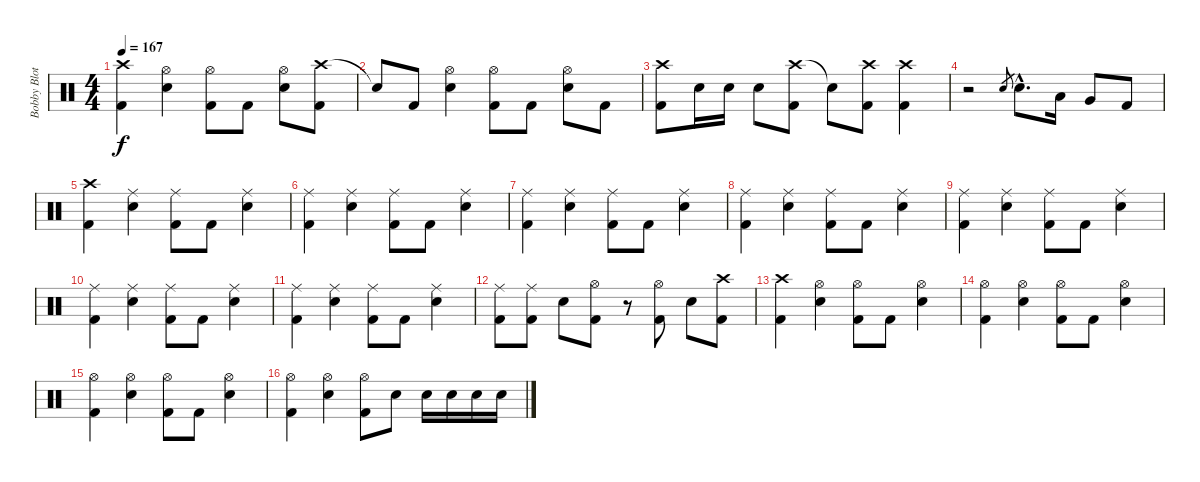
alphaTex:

\track ("Bobby Blotzer" "Bobby Blot") {instrument percussion}
\staff {score}
\articulation defaults
\ts (4 4)
\tempo 167
\clef neutral
\ks c
("Crash high (hit)" "Kick (hit) 2").4{dy f} ("Hi-Hat (open)" "Electric Snare (hit)").4 ("Hi-Hat (open)" "Kick (hit) 2").8 "Kick (hit) 2".8 ("Hi-Hat (open)" "Electric Snare (hit)").8 ("Crash high (hit)" "Kick (hit) 2").8 |
"Snare (hit)"{t}.8 "Kick (hit) 2".8 ("Hi-Hat (open)" "Electric Snare (hit)").4 ("Hi-Hat (open)" "Kick (hit) 2").8 "Kick (hit) 2".8 ("Hi-Hat (open)" "Electric Snare (hit)").8 "Kick (hit) 2".8 |
("Crash high (hit)" "Kick (hit) 2").8 "Electric Snare (hit)".16 "Electric Snare (hit)".16 "Electric Snare (hit)".8 ("Crash high (hit)" "Kick (hit) 2").8 "Snare (hit)"{t}.8 ("Crash high (hit)" "Kick (hit) 2").8 ("Crash high (hit)" "Kick (hit) 2").4 |
r.2 "Electric Snare (hit)".8{gr} "Electric Snare (hit)"{hac}.8{d} "Low Tom (hit)".16 "Very Low Tom (hit)".8 "Kick (hit) 2".8 |
("Crash high (hit)" "Kick (hit) 2").4 ("Ride (middle)" "Electric Snare (hit)").4 ("Ride (middle)" "Kick (hit) 2").8 "Kick (hit) 2".8 ("Ride (middle)" "Electric Snare (hit)").4 |
("Ride (middle)" "Kick (hit) 2").4 ("Ride (middle)" "Electric Snare (hit)").4 ("Ride (middle)" "Kick (hit) 2").8 "Kick (hit) 2".8 ("Ride (middle)" "Electric Snare (hit)").4 |
("Ride (middle)" "Kick (hit) 2").4 ("Ride (middle)" "Electric Snare (hit)").4 ("Ride (middle)" "Kick (hit) 2").8 "Kick (hit) 2".8 ("Ride (middle)" "Electric Snare (hit)").4 |
("Ride (middle)" "Kick (hit) 2").4 ("Ride (middle)" "Electric Snare (hit)").4 ("Ride (middle)" "Kick (hit) 2").8 "Kick (hit) 2".8 ("Ride (middle)" "Electric Snare (hit)").4 |
("Ride (middle)" "Kick (hit) 2").4 ("Ride (middle)" "Electric Snare (hit)").4 ("Ride (middle)" "Kick (hit) 2").8 "Kick (hit) 2".8 ("Ride (middle)" "Electric Snare (hit)").4 |
("Ride (middle)" "Kick (hit) 2").4 ("Ride (middle)" "Electric Snare (hit)").4 ("Ride (middle)" "Kick (hit) 2").8 "Kick (hit) 2".8 ("Ride (middle)" "Electric Snare (hit)").4 |
("Ride (middle)" "Kick (hit) 2").4 ("Ride (middle)" "Electric Snare (hit)").4 ("Ride (middle)" "Kick (hit) 2").8 "Kick (hit) 2".8 ("Ride (middle)" "Electric Snare (hit)").4 |
("Ride (middle)" "Kick (hit) 2").8 ("Ride (middle)" "Kick (hit) 2").8 "Electric Snare (hit)".8 ("Hi-Hat (open)" "Kick (hit) 2").8 r.8 ("Hi-Hat (open)" "Kick (hit) 2").8 "Electric Snare (hit)".8 ("Crash high (hit)" "Kick (hit) 2").8 |
("Crash high (hit)" "Kick (hit) 2").4 ("Hi-Hat (open)" "Electric Snare (hit)").4 ("Hi-Hat (open)" "Kick (hit) 2").8 "Kick (hit) 2".8 ("Hi-Hat (open)" "Electric Snare (hit)").4 |
("Hi-Hat (open)" "Kick (hit) 2").4 ("Hi-Hat (open)" "Electric Snare (hit)").4 ("Hi-Hat (open)" "Kick (hit) 2").8 "Kick (hit) 2".8 ("Hi-Hat (open)" "Electric Snare (hit)").4 |
("Hi-Hat (open)" "Kick (hit) 2").4 ("Hi-Hat (open)" "Electric Snare (hit)").4 ("Hi-Hat (open)" "Kick (hit) 2").8 "Kick (hit) 2".8 ("Hi-Hat (open)" "Electric Snare (hit)").4 |
("Hi-Hat (open)" "Kick (hit) 2").4 ("Hi-Hat (open)" "Electric Snare (hit)").4 ("Hi-Hat (open)" "Kick (hit) 2").8 "Electric Snare (hit)".8 "Electric Snare (hit)".16 "Electric Snare (hit)".16 "Electric Snare (hit)".16 "Electric Snare (hit)".16
